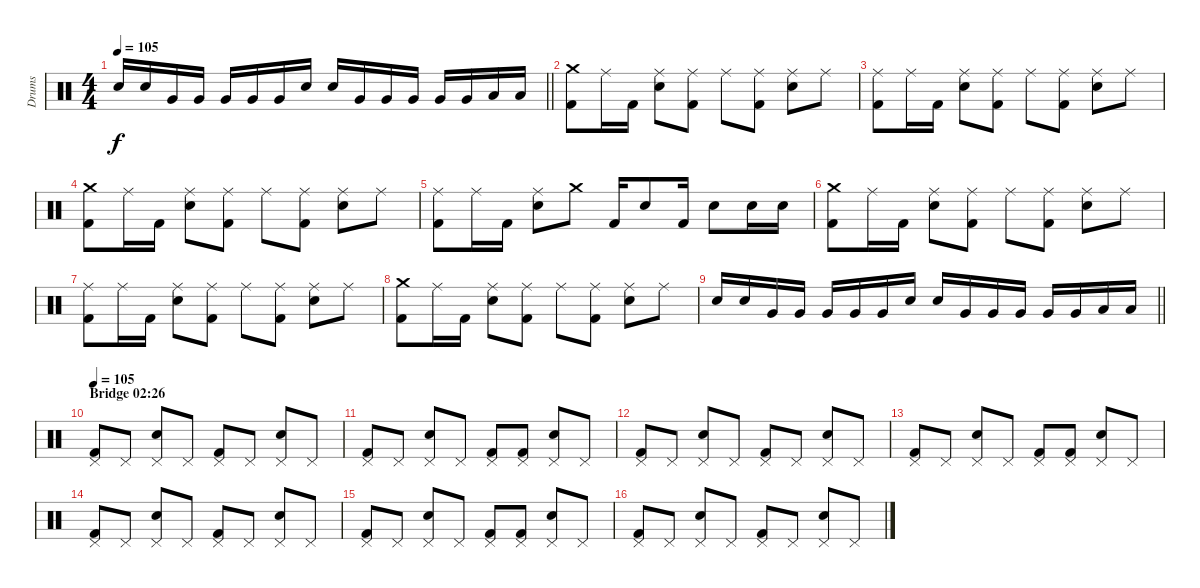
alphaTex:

\track ("Drums" "Drums") {instrument percussion}
\staff {score}
\articulation defaults
\ts (4 4)
\tempo 105
\clef neutral
\barLineRight lightlight
\ks c "Electric Snare (hit)".16{dy f} "Electric Snare (hit)".16 "Very Low Tom (hit)".16 "Very Low Tom (hit)".16 "Very Low Tom (hit)".16 "Very Low Tom (hit)".16 "Very Low Tom (hit)".16 "Electric Snare (hit)".16 "Electric Snare (hit)".16 "Very Low Tom (hit)".16 "Very Low Tom (hit)".16 "Very Low Tom (hit)".16 "Very Low Tom (hit)".16 "Very Low Tom (hit)".16 "Low Tom (hit)".16 "Low Tom (hit)".16
|
("Crash medium (hit)" "Kick (hit) 2").8 "Ride (middle)".16 "Kick (hit) 2".16 ("Ride (middle)" "Electric Snare (hit)").8 ("Ride (middle)" "Kick (hit) 2").8 "Ride (middle)".8 ("Ride (middle)" "Kick (hit) 2").8 ("Ride (middle)" "Electric Snare (hit)").8 "Ride (middle)".8 |
("Ride (middle)" "Kick (hit) 2").8 "Ride (middle)".16 "Kick (hit) 2".16 ("Ride (middle)" "Electric Snare (hit)").8 ("Ride (middle)" "Kick (hit) 2").8 "Ride (middle)".8 ("Ride (middle)" "Kick (hit) 2").8 ("Ride (middle)" "Electric Snare (hit)").8 "Ride (middle)".8 |
("Crash medium (hit)" "Kick (hit) 2").8 "Ride (middle)".16 "Kick (hit) 2".16 ("Ride (middle)" "Electric Snare (hit)").8 ("Ride (middle)" "Kick (hit) 2").8 "Ride (middle)".8 ("Ride (middle)" "Kick (hit) 2").8 ("Ride (middle)" "Electric Snare (hit)").8 "Ride (middle)".8 |
("Ride (middle)" "Kick (hit) 2").8 "Ride (middle)".16 "Kick (hit) 2".16 ("Ride (middle)" "Electric Snare (hit)").8 "Crash medium (hit)".8 "Kick (hit) 2".16 "Electric Snare (hit)".8 "Kick (hit) 2".16 "Electric Snare (hit)".8 "Electric Snare (hit)".16 "Electric Snare (hit)".16 |
("Crash medium (hit)" "Kick (hit) 2").8 "Ride (middle)".16 "Kick (hit) 2".16 ("Ride (middle)" "Electric Snare (hit)").8 ("Ride (middle)" "Kick (hit) 2").8 "Ride (middle)".8 ("Ride (middle)" "Kick (hit) 2").8 ("Ride (middle)" "Electric Snare (hit)").8 "Ride (middle)".8 |
("Ride (middle)" "Kick (hit) 2").8 "Ride (middle)".16 "Kick (hit) 2".16 ("Ride (middle)" "Electric Snare (hit)").8 ("Ride (middle)" "Kick (hit) 2").8 "Ride (middle)".8 ("Ride (middle)" "Kick (hit) 2").8 ("Ride (middle)" "Electric Snare (hit)").8 "Ride (middle)".8 |
("Crash medium (hit)" "Kick (hit) 2").8 "Ride (middle)".16 "Kick (hit) 2".16 ("Ride (middle)" "Electric Snare (hit)").8 ("Ride (middle)" "Kick (hit) 2").8 "Ride (middle)".8 ("Ride (middle)" "Kick (hit) 2").8 ("Ride (middle)" "Electric Snare (hit)").8 "Ride (middle)".8 |
\barLineRight lightlight "Electric Snare (hit)".16 "Electric Snare (hit)".16 "Very Low Tom (hit)".16 "Very Low Tom (hit)".16 "Very Low Tom (hit)".16 "Very Low Tom (hit)".16 "Very Low Tom (hit)".16 "Electric Snare (hit)".16 "Electric Snare (hit)".16 "Very Low Tom (hit)".16 "Very Low Tom (hit)".16 "Very Low Tom (hit)".16 "Very Low Tom (hit)".16 "Very Low Tom (hit)".16 "Low Tom (hit)".16 "Low Tom (hit)".16
|
\section ("" "Bridge 02:26")
\tempo 105
("Pedal Hi-Hat (hit)" "Kick (hit) 2").8 "Pedal Hi-Hat (hit)".8 ("Pedal Hi-Hat (hit)" "Electric Snare (hit)").8 "Pedal Hi-Hat (hit)".8 ("Pedal Hi-Hat (hit)" "Kick (hit) 2").8 "Pedal Hi-Hat (hit)".8 ("Pedal Hi-Hat (hit)" "Electric Snare (hit)").8 "Pedal Hi-Hat (hit)".8 |
("Pedal Hi-Hat (hit)" "Kick (hit) 2").8 "Pedal Hi-Hat (hit)".8 ("Pedal Hi-Hat (hit)" "Electric Snare (hit)").8 "Pedal Hi-Hat (hit)".8 ("Pedal Hi-Hat (hit)" "Kick (hit) 2").8 ("Pedal Hi-Hat (hit)" "Kick (hit) 2").8 ("Pedal Hi-Hat (hit)" "Electric Snare (hit)").8 "Pedal Hi-Hat (hit)".8 |
("Pedal Hi-Hat (hit)" "Kick (hit) 2").8 "Pedal Hi-Hat (hit)".8 ("Pedal Hi-Hat (hit)" "Electric Snare (hit)").8 "Pedal Hi-Hat (hit)".8 ("Pedal Hi-Hat (hit)" "Kick (hit) 2").8 "Pedal Hi-Hat (hit)".8 ("Pedal Hi-Hat (hit)" "Electric Snare (hit)").8 "Pedal Hi-Hat (hit)".8 |
("Pedal Hi-Hat (hit)" "Kick (hit) 2").8 "Pedal Hi-Hat (hit)".8 ("Pedal Hi-Hat (hit)" "Electric Snare (hit)").8 "Pedal Hi-Hat (hit)".8 ("Pedal Hi-Hat (hit)" "Kick (hit) 2").8 ("Pedal Hi-Hat (hit)" "Kick (hit) 2").8 ("Pedal Hi-Hat (hit)" "Electric Snare (hit)").8 "Pedal Hi-Hat (hit)".8 |
("Pedal Hi-Hat (hit)" "Kick (hit) 2").8 "Pedal Hi-Hat (hit)".8 ("Pedal Hi-Hat (hit)" "Electric Snare (hit)").8 "Pedal Hi-Hat (hit)".8 ("Pedal Hi-Hat (hit)" "Kick (hit) 2").8 "Pedal Hi-Hat (hit)".8 ("Pedal Hi-Hat (hit)" "Electric Snare (hit)").8 "Pedal Hi-Hat (hit)".8 |
("Pedal Hi-Hat (hit)" "Kick (hit) 2").8 "Pedal Hi-Hat (hit)".8 ("Pedal Hi-Hat (hit)" "Electric Snare (hit)").8 "Pedal Hi-Hat (hit)".8 ("Pedal Hi-Hat (hit)" "Kick (hit) 2").8 ("Pedal Hi-Hat (hit)" "Kick (hit) 2").8 ("Pedal Hi-Hat (hit)" "Electric Snare (hit)").8 "Pedal Hi-Hat (hit)".8 |
("Pedal Hi-Hat (hit)" "Kick (hit) 2").8 "Pedal Hi-Hat (hit)".8 ("Pedal Hi-Hat (hit)" "Electric Snare (hit)").8 "Pedal Hi-Hat (hit)".8 ("Pedal Hi-Hat (hit)" "Kick (hit) 2").8 "Pedal Hi-Hat (hit)".8 ("Pedal Hi-Hat (hit)" "Electric Snare (hit)").8 "Pedal Hi-Hat (hit)".8
